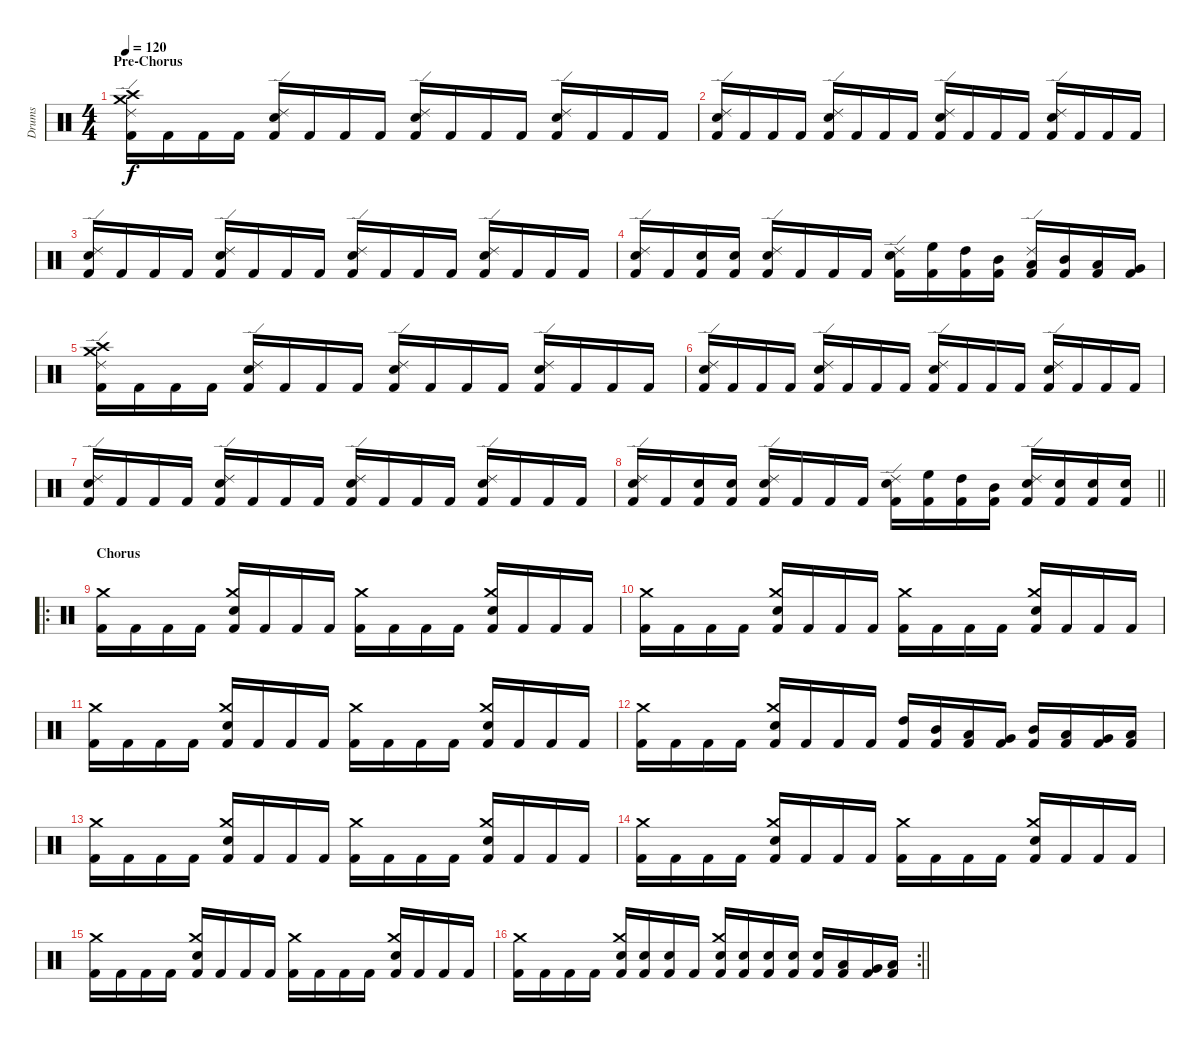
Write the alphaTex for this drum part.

\track ("Drums" "Drums") {instrument percussion}
\staff {score}
\articulation defaults
\ts (4 4)
\section ("" "Pre-Chorus")
\tempo 120
\clef neutral
\ks c
("Kick (hit) 2" "Ride (edge) 2" "Crash high (hit)" "Crash medium (hit)").16{dy f} "Kick (hit) 2".16 "Kick (hit) 2".16 "Kick (hit) 2".16 ("Kick (hit) 2" "Snare (hit) 2" "Ride (edge) 2").16 "Kick (hit) 2".16 "Kick (hit) 2".16 "Kick (hit) 2".16 ("Kick (hit) 2" "Snare (hit) 2" "Ride (edge) 2").16 "Kick (hit) 2".16 "Kick (hit) 2".16 "Kick (hit) 2".16 ("Kick (hit) 2" "Snare (hit) 2" "Ride (edge) 2").16 "Kick (hit) 2".16 "Kick (hit) 2".16 "Kick (hit) 2".16 |
("Kick (hit) 2" "Snare (hit) 2" "Ride (edge) 2").16 "Kick (hit) 2".16 "Kick (hit) 2".16 "Kick (hit) 2".16 ("Kick (hit) 2" "Snare (hit) 2" "Ride (edge) 2").16 "Kick (hit) 2".16 "Kick (hit) 2".16 "Kick (hit) 2".16 ("Kick (hit) 2" "Snare (hit) 2" "Ride (edge) 2").16 "Kick (hit) 2".16 "Kick (hit) 2".16 "Kick (hit) 2".16 ("Kick (hit) 2" "Snare (hit) 2" "Ride (edge) 2").16 "Kick (hit) 2".16 "Kick (hit) 2".16 "Kick (hit) 2".16 |
("Kick (hit) 2" "Snare (hit) 2" "Ride (edge) 2").16 "Kick (hit) 2".16 "Kick (hit) 2".16 "Kick (hit) 2".16 ("Kick (hit) 2" "Snare (hit) 2" "Ride (edge) 2").16 "Kick (hit) 2".16 "Kick (hit) 2".16 "Kick (hit) 2".16 ("Kick (hit) 2" "Snare (hit) 2" "Ride (edge) 2").16 "Kick (hit) 2".16 "Kick (hit) 2".16 "Kick (hit) 2".16 ("Kick (hit) 2" "Snare (hit) 2" "Ride (edge) 2").16 "Kick (hit) 2".16 "Kick (hit) 2".16 "Kick (hit) 2".16 |
("Kick (hit) 2" "Snare (hit) 2" "Ride (edge) 2").16 "Kick (hit) 2".16 ("Kick (hit) 2" "Snare (hit) 2").16 ("Kick (hit) 2" "Snare (hit) 2").16 ("Kick (hit) 2" "Snare (hit) 2" "Ride (edge) 2").16 "Kick (hit) 2".16 "Kick (hit) 2".16 "Kick (hit) 2".16 ("Kick (hit) 2" "Snare (hit) 2" "Ride (edge) 2").16 ("Kick (hit) 2" "High Floor Tom (hit)").16 ("Kick (hit) 2" "High Tom (hit)").16 ("Kick (hit) 2" "Mid Tom (hit)").16 ("Kick (hit) 2" "Ride (edge) 2" "Low Tom (hit)").16 ("Kick (hit) 2" "Mid Tom (hit)").16 ("Kick (hit) 2" "Low Tom (hit)").16 ("Kick (hit) 2" "Very Low Tom (hit)").16 |
("Kick (hit) 2" "Ride (edge) 2" "Crash high (hit)" "Crash medium (hit)").16 "Kick (hit) 2".16 "Kick (hit) 2".16 "Kick (hit) 2".16 ("Kick (hit) 2" "Snare (hit) 2" "Ride (edge) 2").16 "Kick (hit) 2".16 "Kick (hit) 2".16 "Kick (hit) 2".16 ("Kick (hit) 2" "Snare (hit) 2" "Ride (edge) 2").16 "Kick (hit) 2".16 "Kick (hit) 2".16 "Kick (hit) 2".16 ("Kick (hit) 2" "Snare (hit) 2" "Ride (edge) 2").16 "Kick (hit) 2".16 "Kick (hit) 2".16 "Kick (hit) 2".16 |
("Kick (hit) 2" "Snare (hit) 2" "Ride (edge) 2").16 "Kick (hit) 2".16 "Kick (hit) 2".16 "Kick (hit) 2".16 ("Kick (hit) 2" "Snare (hit) 2" "Ride (edge) 2").16 "Kick (hit) 2".16 "Kick (hit) 2".16 "Kick (hit) 2".16 ("Kick (hit) 2" "Snare (hit) 2" "Ride (edge) 2").16 "Kick (hit) 2".16 "Kick (hit) 2".16 "Kick (hit) 2".16 ("Kick (hit) 2" "Snare (hit) 2" "Ride (edge) 2").16 "Kick (hit) 2".16 "Kick (hit) 2".16 "Kick (hit) 2".16 |
("Kick (hit) 2" "Snare (hit) 2" "Ride (edge) 2").16 "Kick (hit) 2".16 "Kick (hit) 2".16 "Kick (hit) 2".16 ("Kick (hit) 2" "Snare (hit) 2" "Ride (edge) 2").16 "Kick (hit) 2".16 "Kick (hit) 2".16 "Kick (hit) 2".16 ("Kick (hit) 2" "Snare (hit) 2" "Ride (edge) 2").16 "Kick (hit) 2".16 "Kick (hit) 2".16 "Kick (hit) 2".16 ("Kick (hit) 2" "Snare (hit) 2" "Ride (edge) 2").16 "Kick (hit) 2".16 "Kick (hit) 2".16 "Kick (hit) 2".16 |
\barLineRight lightlight
("Kick (hit) 2" "Snare (hit) 2" "Ride (edge) 2").16 "Kick (hit) 2".16 ("Kick (hit) 2" "Snare (hit) 2").16 ("Kick (hit) 2" "Snare (hit) 2").16 ("Kick (hit) 2" "Snare (hit) 2" "Ride (edge) 2").16 "Kick (hit) 2".16 "Kick (hit) 2".16 "Kick (hit) 2".16 ("Kick (hit) 2" "Snare (hit) 2" "Ride (edge) 2").16 ("Kick (hit) 2" "High Floor Tom (hit)").16 ("Kick (hit) 2" "High Tom (hit)").16 ("Kick (hit) 2" "Mid Tom (hit)").16 ("Kick (hit) 2" "Snare (hit) 2" "Ride (edge) 2").16 ("Kick (hit) 2" "Snare (hit) 2").16 ("Kick (hit) 2" "Snare (hit) 2").16 ("Kick (hit) 2" "Snare (hit) 2").16 |
\ro
\section ("" "Chorus")
("Kick (hit) 2" "Crash medium (hit)").16 "Kick (hit) 2".16 "Kick (hit) 2".16 "Kick (hit) 2".16 ("Kick (hit) 2" "Snare (hit) 2" "Crash medium (hit)").16 "Kick (hit) 2".16 "Kick (hit) 2".16 "Kick (hit) 2".16 ("Kick (hit) 2" "Crash medium (hit)").16 "Kick (hit) 2".16 "Kick (hit) 2".16 "Kick (hit) 2".16 ("Kick (hit) 2" "Snare (hit) 2" "Crash medium (hit)").16 "Kick (hit) 2".16 "Kick (hit) 2".16 "Kick (hit) 2".16 |
("Kick (hit) 2" "Crash medium (hit)").16 "Kick (hit) 2".16 "Kick (hit) 2".16 "Kick (hit) 2".16 ("Kick (hit) 2" "Snare (hit) 2" "Crash medium (hit)").16 "Kick (hit) 2".16 "Kick (hit) 2".16 "Kick (hit) 2".16 ("Kick (hit) 2" "Crash medium (hit)").16 "Kick (hit) 2".16 "Kick (hit) 2".16 "Kick (hit) 2".16 ("Kick (hit) 2" "Snare (hit) 2" "Crash medium (hit)").16 "Kick (hit) 2".16 "Kick (hit) 2".16 "Kick (hit) 2".16 |
("Kick (hit) 2" "Crash medium (hit)").16 "Kick (hit) 2".16 "Kick (hit) 2".16 "Kick (hit) 2".16 ("Kick (hit) 2" "Snare (hit) 2" "Crash medium (hit)").16 "Kick (hit) 2".16 "Kick (hit) 2".16 "Kick (hit) 2".16 ("Kick (hit) 2" "Crash medium (hit)").16 "Kick (hit) 2".16 "Kick (hit) 2".16 "Kick (hit) 2".16 ("Kick (hit) 2" "Snare (hit) 2" "Crash medium (hit)").16 "Kick (hit) 2".16 "Kick (hit) 2".16 "Kick (hit) 2".16 |
("Kick (hit) 2" "Crash medium (hit)").16 "Kick (hit) 2".16 "Kick (hit) 2".16 "Kick (hit) 2".16 ("Kick (hit) 2" "Snare (hit) 2" "Crash medium (hit)").16 "Kick (hit) 2".16 "Kick (hit) 2".16 "Kick (hit) 2".16 ("Kick (hit) 2" "High Tom (hit)").16 ("Kick (hit) 2" "Mid Tom (hit)").16 ("Kick (hit) 2" "Low Tom (hit)").16 ("Kick (hit) 2" "Very Low Tom (hit)").16 ("Kick (hit) 2" "Mid Tom (hit)").16 ("Kick (hit) 2" "Low Tom (hit)").16 ("Kick (hit) 2" "Very Low Tom (hit)").16 ("Kick (hit) 2" "Low Floor Tom (hit)").16 |
("Kick (hit) 2" "Crash medium (hit)").16 "Kick (hit) 2".16 "Kick (hit) 2".16 "Kick (hit) 2".16 ("Kick (hit) 2" "Snare (hit) 2" "Crash medium (hit)").16 "Kick (hit) 2".16 "Kick (hit) 2".16 "Kick (hit) 2".16 ("Kick (hit) 2" "Crash medium (hit)").16 "Kick (hit) 2".16 "Kick (hit) 2".16 "Kick (hit) 2".16 ("Kick (hit) 2" "Snare (hit) 2" "Crash medium (hit)").16 "Kick (hit) 2".16 "Kick (hit) 2".16 "Kick (hit) 2".16 |
("Kick (hit) 2" "Crash medium (hit)").16 "Kick (hit) 2".16 "Kick (hit) 2".16 "Kick (hit) 2".16 ("Kick (hit) 2" "Snare (hit) 2" "Crash medium (hit)").16 "Kick (hit) 2".16 "Kick (hit) 2".16 "Kick (hit) 2".16 ("Kick (hit) 2" "Crash medium (hit)").16 "Kick (hit) 2".16 "Kick (hit) 2".16 "Kick (hit) 2".16 ("Kick (hit) 2" "Snare (hit) 2" "Crash medium (hit)").16 "Kick (hit) 2".16 "Kick (hit) 2".16 "Kick (hit) 2".16 |
("Kick (hit) 2" "Crash medium (hit)").16 "Kick (hit) 2".16 "Kick (hit) 2".16 "Kick (hit) 2".16 ("Kick (hit) 2" "Snare (hit) 2" "Crash medium (hit)").16 "Kick (hit) 2".16 "Kick (hit) 2".16 "Kick (hit) 2".16 ("Kick (hit) 2" "Crash medium (hit)").16 "Kick (hit) 2".16 "Kick (hit) 2".16 "Kick (hit) 2".16 ("Kick (hit) 2" "Snare (hit) 2" "Crash medium (hit)").16 "Kick (hit) 2".16 "Kick (hit) 2".16 "Kick (hit) 2".16 |
\rc 2
\barLineRight lightlight
("Kick (hit) 2" "Crash medium (hit)").16 "Kick (hit) 2".16 "Kick (hit) 2".16 "Kick (hit) 2".16 ("Kick (hit) 2" "Snare (hit) 2" "Crash medium (hit)").16 ("Kick (hit) 2" "Snare (hit) 2").16 ("Kick (hit) 2" "Snare (hit) 2").16 "Kick (hit) 2".16 ("Kick (hit) 2" "Snare (hit) 2" "Crash medium (hit)").16 ("Kick (hit) 2" "Snare (hit) 2").16 ("Kick (hit) 2" "Snare (hit) 2").16 ("Kick (hit) 2" "Snare (hit) 2").16 ("Kick (hit) 2" "Snare (hit) 2").16 ("Kick (hit) 2" "Low Tom (hit)").16 ("Kick (hit) 2" "Very Low Tom (hit)").16 ("Kick (hit) 2" "Low Floor Tom (hit)").16
